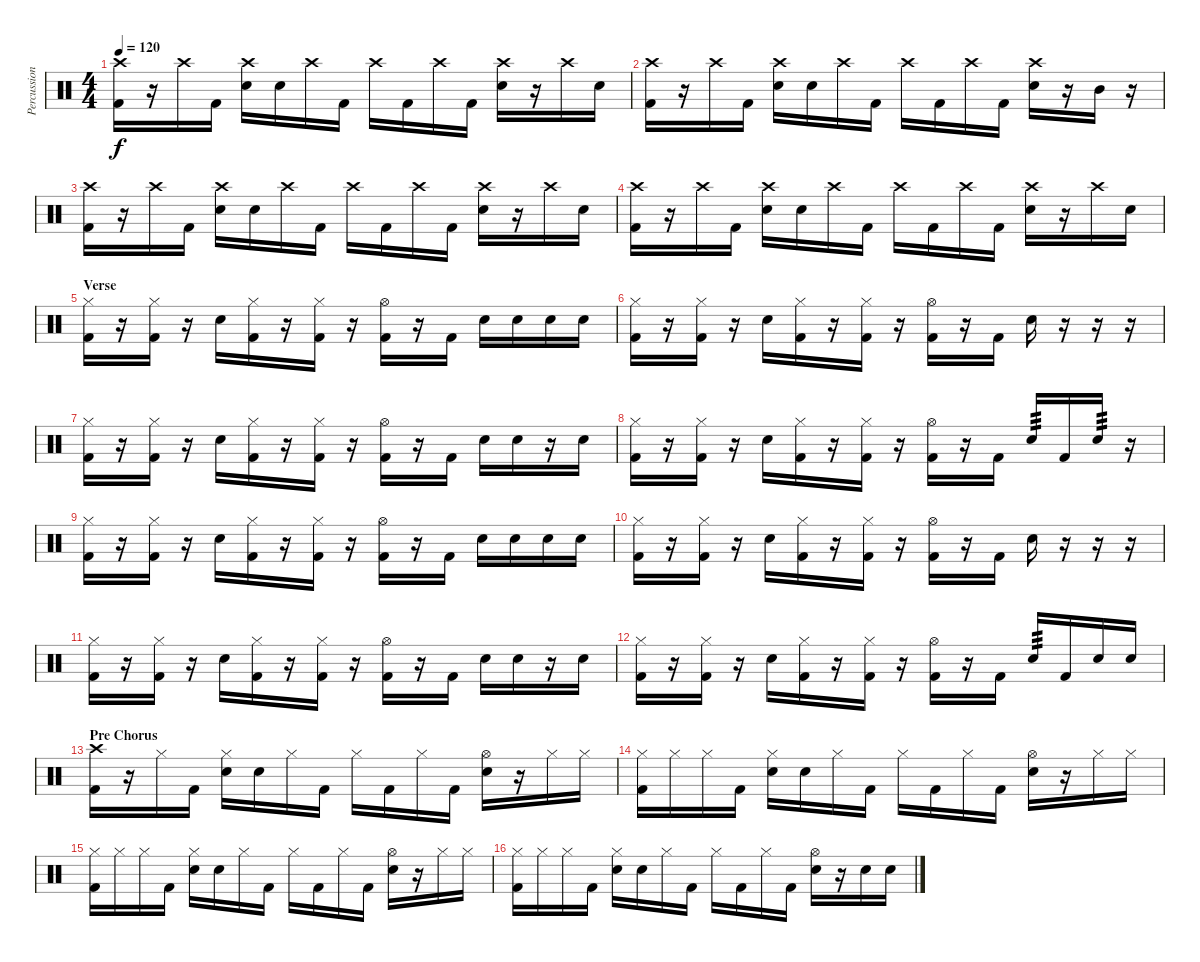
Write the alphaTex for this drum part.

\track ("Percussion" "Percussion") {instrument percussion}
\staff {score}
\articulation defaults
\ts (4 4)
\tempo 120
\clef neutral
\ks c
("Crash high (hit)" "Kick (hit) 2").16{dy f} r.16 "Crash high (hit)".16 "Kick (hit) 2".16 ("Crash high (hit)" "Electric Snare (hit)").16 "Electric Snare (hit)".16 "Crash high (hit)".16 "Kick (hit) 2".16 "Crash high (hit)".16 "Kick (hit) 2".16 "Crash high (hit)".16 "Kick (hit) 2".16 ("Crash high (hit)" "Electric Snare (hit)").16 r.16 "Crash high (hit)".16 "Electric Snare (hit)".16 |
("Crash high (hit)" "Kick (hit) 2").16 r.16 "Crash high (hit)".16 "Kick (hit) 2".16 ("Crash high (hit)" "Electric Snare (hit)").16 "Electric Snare (hit)".16 "Crash high (hit)".16 "Kick (hit) 2".16 "Crash high (hit)".16 "Kick (hit) 2".16 "Crash high (hit)".16 "Kick (hit) 2".16 ("Crash high (hit)" "Electric Snare (hit)").16 r.16 "Mid Tom (hit)".16 r.16 |
("Crash high (hit)" "Kick (hit) 2").16 r.16 "Crash high (hit)".16 "Kick (hit) 2".16 ("Crash high (hit)" "Electric Snare (hit)").16 "Electric Snare (hit)".16 "Crash high (hit)".16 "Kick (hit) 2".16 "Crash high (hit)".16 "Kick (hit) 2".16 "Crash high (hit)".16 "Kick (hit) 2".16 ("Crash high (hit)" "Electric Snare (hit)").16 r.16 "Crash high (hit)".16 "Electric Snare (hit)".16 |
("Crash high (hit)" "Kick (hit) 2").16 r.16 "Crash high (hit)".16 "Kick (hit) 2".16 ("Crash high (hit)" "Electric Snare (hit)").16 "Electric Snare (hit)".16 "Crash high (hit)".16 "Kick (hit) 2".16 "Crash high (hit)".16 "Kick (hit) 2".16 "Crash high (hit)".16 "Kick (hit) 2".16 ("Crash high (hit)" "Electric Snare (hit)").16 r.16 "Crash high (hit)".16 "Electric Snare (hit)".16 |
\section ("" "Verse")
("Hi-Hat (closed)" "Kick (hit) 2").16 r.16 ("Hi-Hat (closed)" "Kick (hit) 2").16 r.16 "Electric Snare (hit)".16 ("Hi-Hat (closed)" "Kick (hit) 2").16 r.16 ("Hi-Hat (closed)" "Kick (hit) 2").16 r.16 ("Hi-Hat (open)" "Kick (hit) 2").16 r.16 "Kick (hit) 2".16 "Electric Snare (hit)".16 "Electric Snare (hit)".16 "Electric Snare (hit)".16 "Electric Snare (hit)".16 |
("Hi-Hat (closed)" "Kick (hit) 2").16 r.16 ("Hi-Hat (closed)" "Kick (hit) 2").16 r.16 "Electric Snare (hit)".16 ("Hi-Hat (closed)" "Kick (hit) 2").16 r.16 ("Hi-Hat (closed)" "Kick (hit) 2").16 r.16 ("Hi-Hat (open)" "Kick (hit) 2").16 r.16 "Kick (hit) 2".16 "Electric Snare (hit)".16 r.16 r.16 r.16 |
("Hi-Hat (closed)" "Kick (hit) 2").16 r.16 ("Hi-Hat (closed)" "Kick (hit) 2").16 r.16 "Electric Snare (hit)".16 ("Hi-Hat (closed)" "Kick (hit) 2").16 r.16 ("Hi-Hat (closed)" "Kick (hit) 2").16 r.16 ("Hi-Hat (open)" "Kick (hit) 2").16 r.16 "Kick (hit) 2".16 "Electric Snare (hit)".16 "Electric Snare (hit)".16 r.16 "Electric Snare (hit)".16 |
("Hi-Hat (closed)" "Kick (hit) 2").16 r.16 ("Hi-Hat (closed)" "Kick (hit) 2").16 r.16 "Electric Snare (hit)".16 ("Hi-Hat (closed)" "Kick (hit) 2").16 r.16 ("Hi-Hat (closed)" "Kick (hit) 2").16 r.16 ("Hi-Hat (open)" "Kick (hit) 2").16 r.16 "Kick (hit) 2".16 "Electric Snare (hit)".16{tp 3} "Kick (hit) 2".16 "Electric Snare (hit)".16{tp 3} r.16 |
("Hi-Hat (closed)" "Kick (hit) 2").16 r.16 ("Hi-Hat (closed)" "Kick (hit) 2").16 r.16 "Electric Snare (hit)".16 ("Hi-Hat (closed)" "Kick (hit) 2").16 r.16 ("Hi-Hat (closed)" "Kick (hit) 2").16 r.16 ("Hi-Hat (open)" "Kick (hit) 2").16 r.16 "Kick (hit) 2".16 "Electric Snare (hit)".16 "Electric Snare (hit)".16 "Electric Snare (hit)".16 "Electric Snare (hit)".16 |
("Hi-Hat (closed)" "Kick (hit) 2").16 r.16 ("Hi-Hat (closed)" "Kick (hit) 2").16 r.16 "Electric Snare (hit)".16 ("Hi-Hat (closed)" "Kick (hit) 2").16 r.16 ("Hi-Hat (closed)" "Kick (hit) 2").16 r.16 ("Hi-Hat (open)" "Kick (hit) 2").16 r.16 "Kick (hit) 2".16 "Electric Snare (hit)".16 r.16 r.16 r.16 |
("Hi-Hat (closed)" "Kick (hit) 2").16 r.16 ("Hi-Hat (closed)" "Kick (hit) 2").16 r.16 "Electric Snare (hit)".16 ("Hi-Hat (closed)" "Kick (hit) 2").16 r.16 ("Hi-Hat (closed)" "Kick (hit) 2").16 r.16 ("Hi-Hat (open)" "Kick (hit) 2").16 r.16 "Kick (hit) 2".16 "Electric Snare (hit)".16 "Electric Snare (hit)".16 r.16 "Electric Snare (hit)".16 |
("Hi-Hat (closed)" "Kick (hit) 2").16 r.16 ("Hi-Hat (closed)" "Kick (hit) 2").16 r.16 "Electric Snare (hit)".16 ("Hi-Hat (closed)" "Kick (hit) 2").16 r.16 ("Hi-Hat (closed)" "Kick (hit) 2").16 r.16 ("Hi-Hat (open)" "Kick (hit) 2").16 r.16 "Kick (hit) 2".16 "Electric Snare (hit)".16{tp 3} "Kick (hit) 2".16 "Electric Snare (hit)".16 "Electric Snare (hit)".16 |
\section ("" "Pre Chorus")
("Crash high (hit)" "Kick (hit) 2").16 r.16 "Hi-Hat (closed)".16 "Kick (hit) 2".16 ("Hi-Hat (closed)" "Electric Snare (hit)").16 "Electric Snare (hit)".16 "Hi-Hat (closed)".16 "Kick (hit) 2".16 "Hi-Hat (closed)".16 "Kick (hit) 2".16 "Hi-Hat (closed)".16 "Kick (hit) 2".16 ("Hi-Hat (open)" "Electric Snare (hit)").16 r.16 "Hi-Hat (closed)".16 "Hi-Hat (closed)".16 |
("Hi-Hat (closed)" "Kick (hit) 2").16 "Hi-Hat (closed)".16 "Hi-Hat (closed)".16 "Kick (hit) 2".16 ("Hi-Hat (closed)" "Electric Snare (hit)").16 "Electric Snare (hit)".16 "Hi-Hat (closed)".16 "Kick (hit) 2".16 "Hi-Hat (closed)".16 "Kick (hit) 2".16 "Hi-Hat (closed)".16 "Kick (hit) 2".16 ("Hi-Hat (open)" "Electric Snare (hit)").16 r.16 "Hi-Hat (closed)".16 "Hi-Hat (closed)".16 |
("Hi-Hat (closed)" "Kick (hit) 2").16 "Hi-Hat (closed)".16 "Hi-Hat (closed)".16 "Kick (hit) 2".16 ("Hi-Hat (closed)" "Electric Snare (hit)").16 "Electric Snare (hit)".16 "Hi-Hat (closed)".16 "Kick (hit) 2".16 "Hi-Hat (closed)".16 "Kick (hit) 2".16 "Hi-Hat (closed)".16 "Kick (hit) 2".16 ("Hi-Hat (open)" "Electric Snare (hit)").16 r.16 "Hi-Hat (closed)".16 "Hi-Hat (closed)".16 |
("Hi-Hat (closed)" "Kick (hit) 2").16 "Hi-Hat (closed)".16 "Hi-Hat (closed)".16 "Kick (hit) 2".16 ("Hi-Hat (closed)" "Electric Snare (hit)").16 "Electric Snare (hit)".16 "Hi-Hat (closed)".16 "Kick (hit) 2".16 "Hi-Hat (closed)".16 "Kick (hit) 2".16 "Hi-Hat (closed)".16 "Kick (hit) 2".16 ("Hi-Hat (open)" "Electric Snare (hit)").16 r.16 "Electric Snare (hit)".16 "Electric Snare (hit)".16
